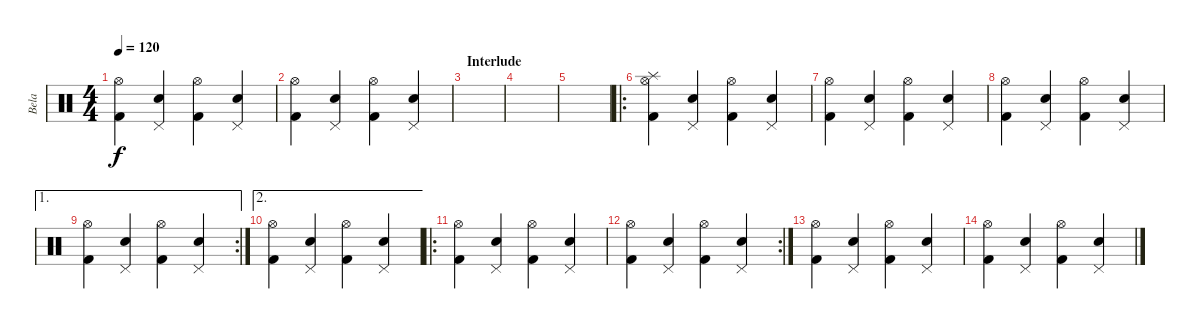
\track ("Bela" "Bela") {instrument percussion}
\staff {score}
\articulation defaults
\ts (4 4)
\tempo 120
\clef neutral
\ks c
("Hi-Hat (open)" "Kick (hit) 2").4{dy f} ("Pedal Hi-Hat (hit)" "Electric Snare (hit)").4 ("Hi-Hat (open)" "Kick (hit) 2").4 ("Pedal Hi-Hat (hit)" "Electric Snare (hit)").4 |
("Hi-Hat (open)" "Kick (hit) 2").4 ("Pedal Hi-Hat (hit)" "Electric Snare (hit)").4 ("Hi-Hat (open)" "Kick (hit) 2").4 ("Pedal Hi-Hat (hit)" "Electric Snare (hit)").4 |
\section ("" "Interlude")
|
|
|
\ro
("Hi-Hat (open)" "Splash (hit)" "Kick (hit) 2").4 ("Pedal Hi-Hat (hit)" "Electric Snare (hit)").4 ("Hi-Hat (open)" "Kick (hit) 2").4 ("Pedal Hi-Hat (hit)" "Electric Snare (hit)").4 |
("Hi-Hat (open)" "Kick (hit) 2").4 ("Pedal Hi-Hat (hit)" "Electric Snare (hit)").4 ("Hi-Hat (open)" "Kick (hit) 2").4 ("Pedal Hi-Hat (hit)" "Electric Snare (hit)").4 |
("Hi-Hat (open)" "Kick (hit) 2").4 ("Pedal Hi-Hat (hit)" "Electric Snare (hit)").4 ("Hi-Hat (open)" "Kick (hit) 2").4 ("Pedal Hi-Hat (hit)" "Electric Snare (hit)").4 |
\ae 1
\rc 2
("Hi-Hat (open)" "Kick (hit) 2").4 ("Pedal Hi-Hat (hit)" "Electric Snare (hit)").4 ("Hi-Hat (open)" "Kick (hit) 2").4 ("Pedal Hi-Hat (hit)" "Electric Snare (hit)").4 |
\ae 2
("Hi-Hat (open)" "Kick (hit) 2").4 ("Pedal Hi-Hat (hit)" "Electric Snare (hit)").4 ("Hi-Hat (open)" "Kick (hit) 2").4 ("Pedal Hi-Hat (hit)" "Electric Snare (hit)").4 |
\ro
("Hi-Hat (open)" "Kick (hit) 2").4 ("Pedal Hi-Hat (hit)" "Electric Snare (hit)").4 ("Hi-Hat (open)" "Kick (hit) 2").4 ("Pedal Hi-Hat (hit)" "Electric Snare (hit)").4 |
\rc 2
("Hi-Hat (open)" "Kick (hit) 2").4 ("Pedal Hi-Hat (hit)" "Electric Snare (hit)").4 ("Hi-Hat (open)" "Kick (hit) 2").4 ("Pedal Hi-Hat (hit)" "Electric Snare (hit)").4 |
("Hi-Hat (open)" "Kick (hit) 2").4 ("Pedal Hi-Hat (hit)" "Electric Snare (hit)").4 ("Hi-Hat (open)" "Kick (hit) 2").4 ("Pedal Hi-Hat (hit)" "Electric Snare (hit)").4 |
("Hi-Hat (open)" "Kick (hit) 2").4 ("Pedal Hi-Hat (hit)" "Electric Snare (hit)").4 ("Hi-Hat (open)" "Kick (hit) 2").4 ("Pedal Hi-Hat (hit)" "Electric Snare (hit)").4
